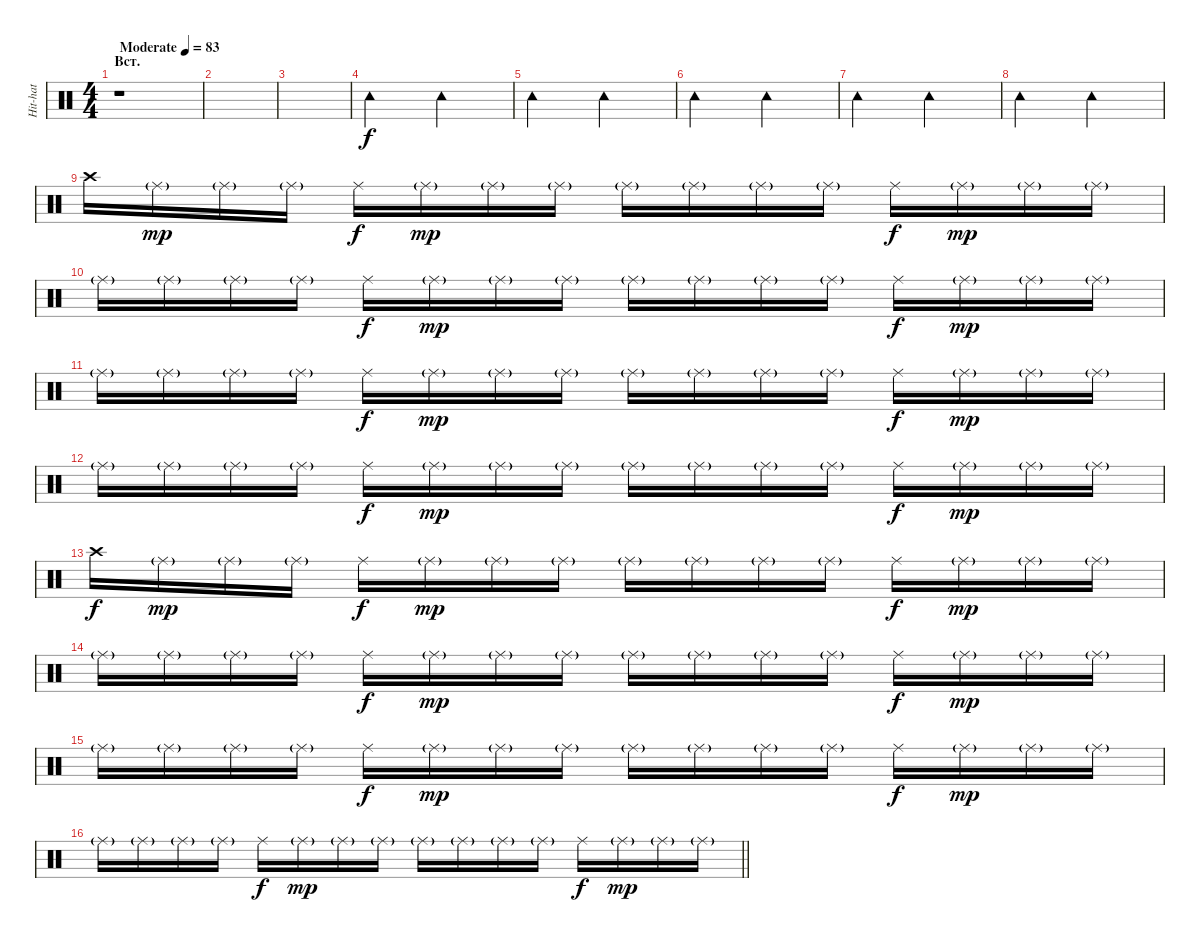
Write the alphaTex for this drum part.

\track ("Hit-hat" "Hit-hat") {instrument percussion}
\staff {score}
\articulation defaults
\ts (4 4)
\section ("" "Вст.")
\tempo (83 "Moderate")
\clef neutral
\ks c
r.1{dy f} |
|
|
"Tambourine (hit)".2 "Tambourine (hit)".2 |
"Tambourine (hit)".2 "Tambourine (hit)".2 |
"Tambourine (hit)".2 "Tambourine (hit)".2 |
"Tambourine (hit)".2 "Tambourine (hit)".2 |
"Tambourine (hit)".2 "Tambourine (hit)".2 |
"Crash high (hit)".16 "Ride (middle)"{g}.16{dy mp} "Ride (middle)"{g}.16 "Ride (middle)"{g}.16 "Ride (middle)".16{dy f} "Ride (middle)"{g}.16{dy mp} "Ride (middle)"{g}.16 "Ride (middle)"{g}.16 "Ride (middle)"{g}.16 "Ride (middle)"{g}.16 "Ride (middle)"{g}.16 "Ride (middle)"{g}.16 "Ride (middle)".16{dy f} "Ride (middle)"{g}.16{dy mp} "Ride (middle)"{g}.16 "Ride (middle)"{g}.16 |
"Ride (middle)"{g}.16 "Ride (middle)"{g}.16 "Ride (middle)"{g}.16 "Ride (middle)"{g}.16 "Ride (middle)".16{dy f} "Ride (middle)"{g}.16{dy mp} "Ride (middle)"{g}.16 "Ride (middle)"{g}.16 "Ride (middle)"{g}.16 "Ride (middle)"{g}.16 "Ride (middle)"{g}.16 "Ride (middle)"{g}.16 "Ride (middle)".16{dy f} "Ride (middle)"{g}.16{dy mp} "Ride (middle)"{g}.16 "Ride (middle)"{g}.16 |
"Ride (middle)"{g}.16 "Ride (middle)"{g}.16 "Ride (middle)"{g}.16 "Ride (middle)"{g}.16 "Ride (middle)".16{dy f} "Ride (middle)"{g}.16{dy mp} "Ride (middle)"{g}.16 "Ride (middle)"{g}.16 "Ride (middle)"{g}.16 "Ride (middle)"{g}.16 "Ride (middle)"{g}.16 "Ride (middle)"{g}.16 "Ride (middle)".16{dy f} "Ride (middle)"{g}.16{dy mp} "Ride (middle)"{g}.16 "Ride (middle)"{g}.16 |
"Ride (middle)"{g}.16 "Ride (middle)"{g}.16 "Ride (middle)"{g}.16 "Ride (middle)"{g}.16 "Ride (middle)".16{dy f} "Ride (middle)"{g}.16{dy mp} "Ride (middle)"{g}.16 "Ride (middle)"{g}.16 "Ride (middle)"{g}.16 "Ride (middle)"{g}.16 "Ride (middle)"{g}.16 "Ride (middle)"{g}.16 "Ride (middle)".16{dy f} "Ride (middle)"{g}.16{dy mp} "Ride (middle)"{g}.16 "Ride (middle)"{g}.16 |
"Crash high (hit)".16{dy f} "Ride (middle)"{g}.16{dy mp} "Ride (middle)"{g}.16 "Ride (middle)"{g}.16 "Ride (middle)".16{dy f} "Ride (middle)"{g}.16{dy mp} "Ride (middle)"{g}.16 "Ride (middle)"{g}.16 "Ride (middle)"{g}.16 "Ride (middle)"{g}.16 "Ride (middle)"{g}.16 "Ride (middle)"{g}.16 "Ride (middle)".16{dy f} "Ride (middle)"{g}.16{dy mp} "Ride (middle)"{g}.16 "Ride (middle)"{g}.16 |
"Ride (middle)"{g}.16 "Ride (middle)"{g}.16 "Ride (middle)"{g}.16 "Ride (middle)"{g}.16 "Ride (middle)".16{dy f} "Ride (middle)"{g}.16{dy mp} "Ride (middle)"{g}.16 "Ride (middle)"{g}.16 "Ride (middle)"{g}.16 "Ride (middle)"{g}.16 "Ride (middle)"{g}.16 "Ride (middle)"{g}.16 "Ride (middle)".16{dy f} "Ride (middle)"{g}.16{dy mp} "Ride (middle)"{g}.16 "Ride (middle)"{g}.16 |
"Ride (middle)"{g}.16 "Ride (middle)"{g}.16 "Ride (middle)"{g}.16 "Ride (middle)"{g}.16 "Ride (middle)".16{dy f} "Ride (middle)"{g}.16{dy mp} "Ride (middle)"{g}.16 "Ride (middle)"{g}.16 "Ride (middle)"{g}.16 "Ride (middle)"{g}.16 "Ride (middle)"{g}.16 "Ride (middle)"{g}.16 "Ride (middle)".16{dy f} "Ride (middle)"{g}.16{dy mp} "Ride (middle)"{g}.16 "Ride (middle)"{g}.16 |
\barLineRight lightlight "Ride (middle)"{g}.16 "Ride (middle)"{g}.16 "Ride (middle)"{g}.16 "Ride (middle)"{g}.16 "Ride (middle)".16{dy f} "Ride (middle)"{g}.16{dy mp} "Ride (middle)"{g}.16 "Ride (middle)"{g}.16 "Ride (middle)"{g}.16 "Ride (middle)"{g}.16 "Ride (middle)"{g}.16 "Ride (middle)"{g}.16 "Ride (middle)".16{dy f} "Ride (middle)"{g}.16{dy mp} "Ride (middle)"{g}.16 "Ride (middle)"{g}.16
